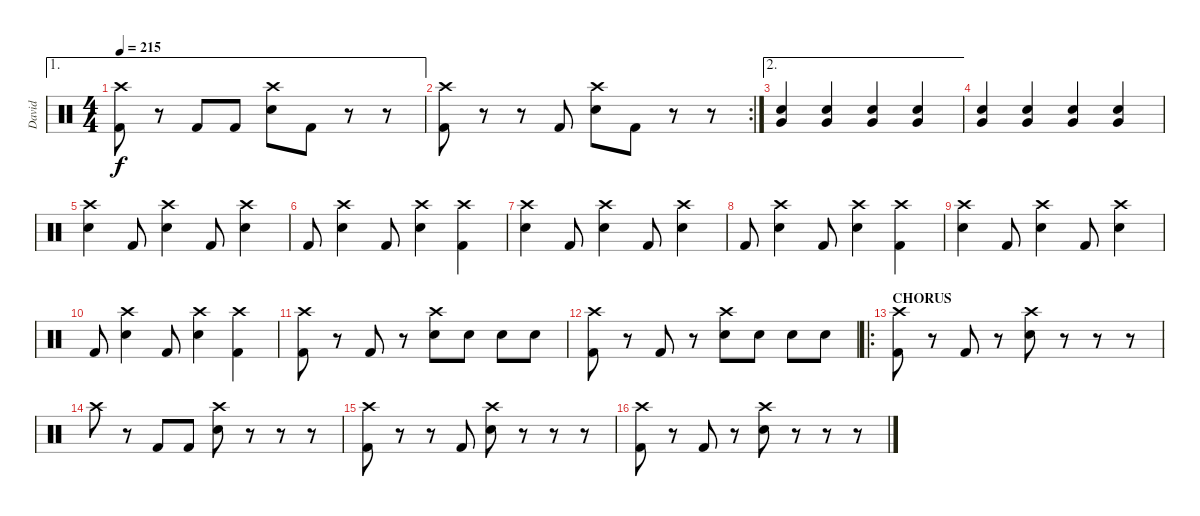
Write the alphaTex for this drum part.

\track ("David" "David") {instrument percussion}
\staff {score}
\articulation defaults
\ae 1
\ts (4 4)
\tempo 215
\clef neutral
\ks c
("Crash high (hit)" "Kick (hit) 2").8{dy f} r.8 "Kick (hit) 2".8 "Kick (hit) 2".8 ("Crash high (hit)" "Electric Snare (hit)").8 "Kick (hit) 2".8 r.8 r.8 |
\rc 2
("Crash high (hit)" "Kick (hit) 2").8 r.8 r.8 "Kick (hit) 2".8 ("Crash high (hit)" "Electric Snare (hit)").8 "Kick (hit) 2".8 r.8 r.8 |
\ae 2
("Very Low Tom (hit)" "Electric Snare (hit)").4{volume 8} ("Very Low Tom (hit)" "Electric Snare (hit)").4{volume 13} ("Very Low Tom (hit)" "Electric Snare (hit)").4 ("Very Low Tom (hit)" "Electric Snare (hit)").4 |
("Very Low Tom (hit)" "Electric Snare (hit)").4 ("Very Low Tom (hit)" "Electric Snare (hit)").4 ("Very Low Tom (hit)" "Electric Snare (hit)").4 ("Very Low Tom (hit)" "Electric Snare (hit)").4 |
("Crash high (hit)" "Electric Snare (hit)").4 "Kick (hit) 2".8 ("Crash high (hit)" "Electric Snare (hit)").4 "Kick (hit) 2".8 ("Crash high (hit)" "Electric Snare (hit)").4 |
"Kick (hit) 2".8 ("Crash high (hit)" "Electric Snare (hit)").4 "Kick (hit) 2".8 ("Crash high (hit)" "Electric Snare (hit)").4 ("Crash high (hit)" "Kick (hit) 2").4 |
("Crash high (hit)" "Electric Snare (hit)").4 "Kick (hit) 2".8 ("Crash high (hit)" "Electric Snare (hit)").4 "Kick (hit) 2".8 ("Crash high (hit)" "Electric Snare (hit)").4 |
"Kick (hit) 2".8 ("Crash high (hit)" "Electric Snare (hit)").4 "Kick (hit) 2".8 ("Crash high (hit)" "Electric Snare (hit)").4 ("Crash high (hit)" "Kick (hit) 2").4 |
("Crash high (hit)" "Electric Snare (hit)").4 "Kick (hit) 2".8 ("Crash high (hit)" "Electric Snare (hit)").4 "Kick (hit) 2".8 ("Crash high (hit)" "Electric Snare (hit)").4 |
"Kick (hit) 2".8 ("Crash high (hit)" "Electric Snare (hit)").4 "Kick (hit) 2".8 ("Crash high (hit)" "Electric Snare (hit)").4 ("Crash high (hit)" "Kick (hit) 2").4 |
("Crash high (hit)" "Kick (hit) 2").8 r.8 "Kick (hit) 2".8 r.8 ("Crash high (hit)" "Electric Snare (hit)").8 "Electric Snare (hit)".8 "Electric Snare (hit)".8 "Electric Snare (hit)".8 |
("Crash high (hit)" "Kick (hit) 2").8 r.8 "Kick (hit) 2".8 r.8 ("Crash high (hit)" "Electric Snare (hit)").8 "Electric Snare (hit)".8 "Electric Snare (hit)".8 "Electric Snare (hit)".8 |
\ro
\section ("" "CHORUS")
("Crash high (hit)" "Kick (hit) 2").8 r.8 "Kick (hit) 2".8 r.8 ("Crash high (hit)" "Electric Snare (hit)").8 r.8 r.8 r.8 |
"Crash high (hit)".8 r.8 "Kick (hit) 2".8 "Kick (hit) 2".8 ("Crash high (hit)" "Electric Snare (hit)").8 r.8 r.8 r.8 |
("Crash high (hit)" "Kick (hit) 2").8 r.8 r.8 "Kick (hit) 2".8 ("Crash high (hit)" "Electric Snare (hit)").8 r.8 r.8 r.8 |
("Crash high (hit)" "Kick (hit) 2").8 r.8 "Kick (hit) 2".8 r.8 ("Crash high (hit)" "Electric Snare (hit)").8 r.8 r.8 r.8
